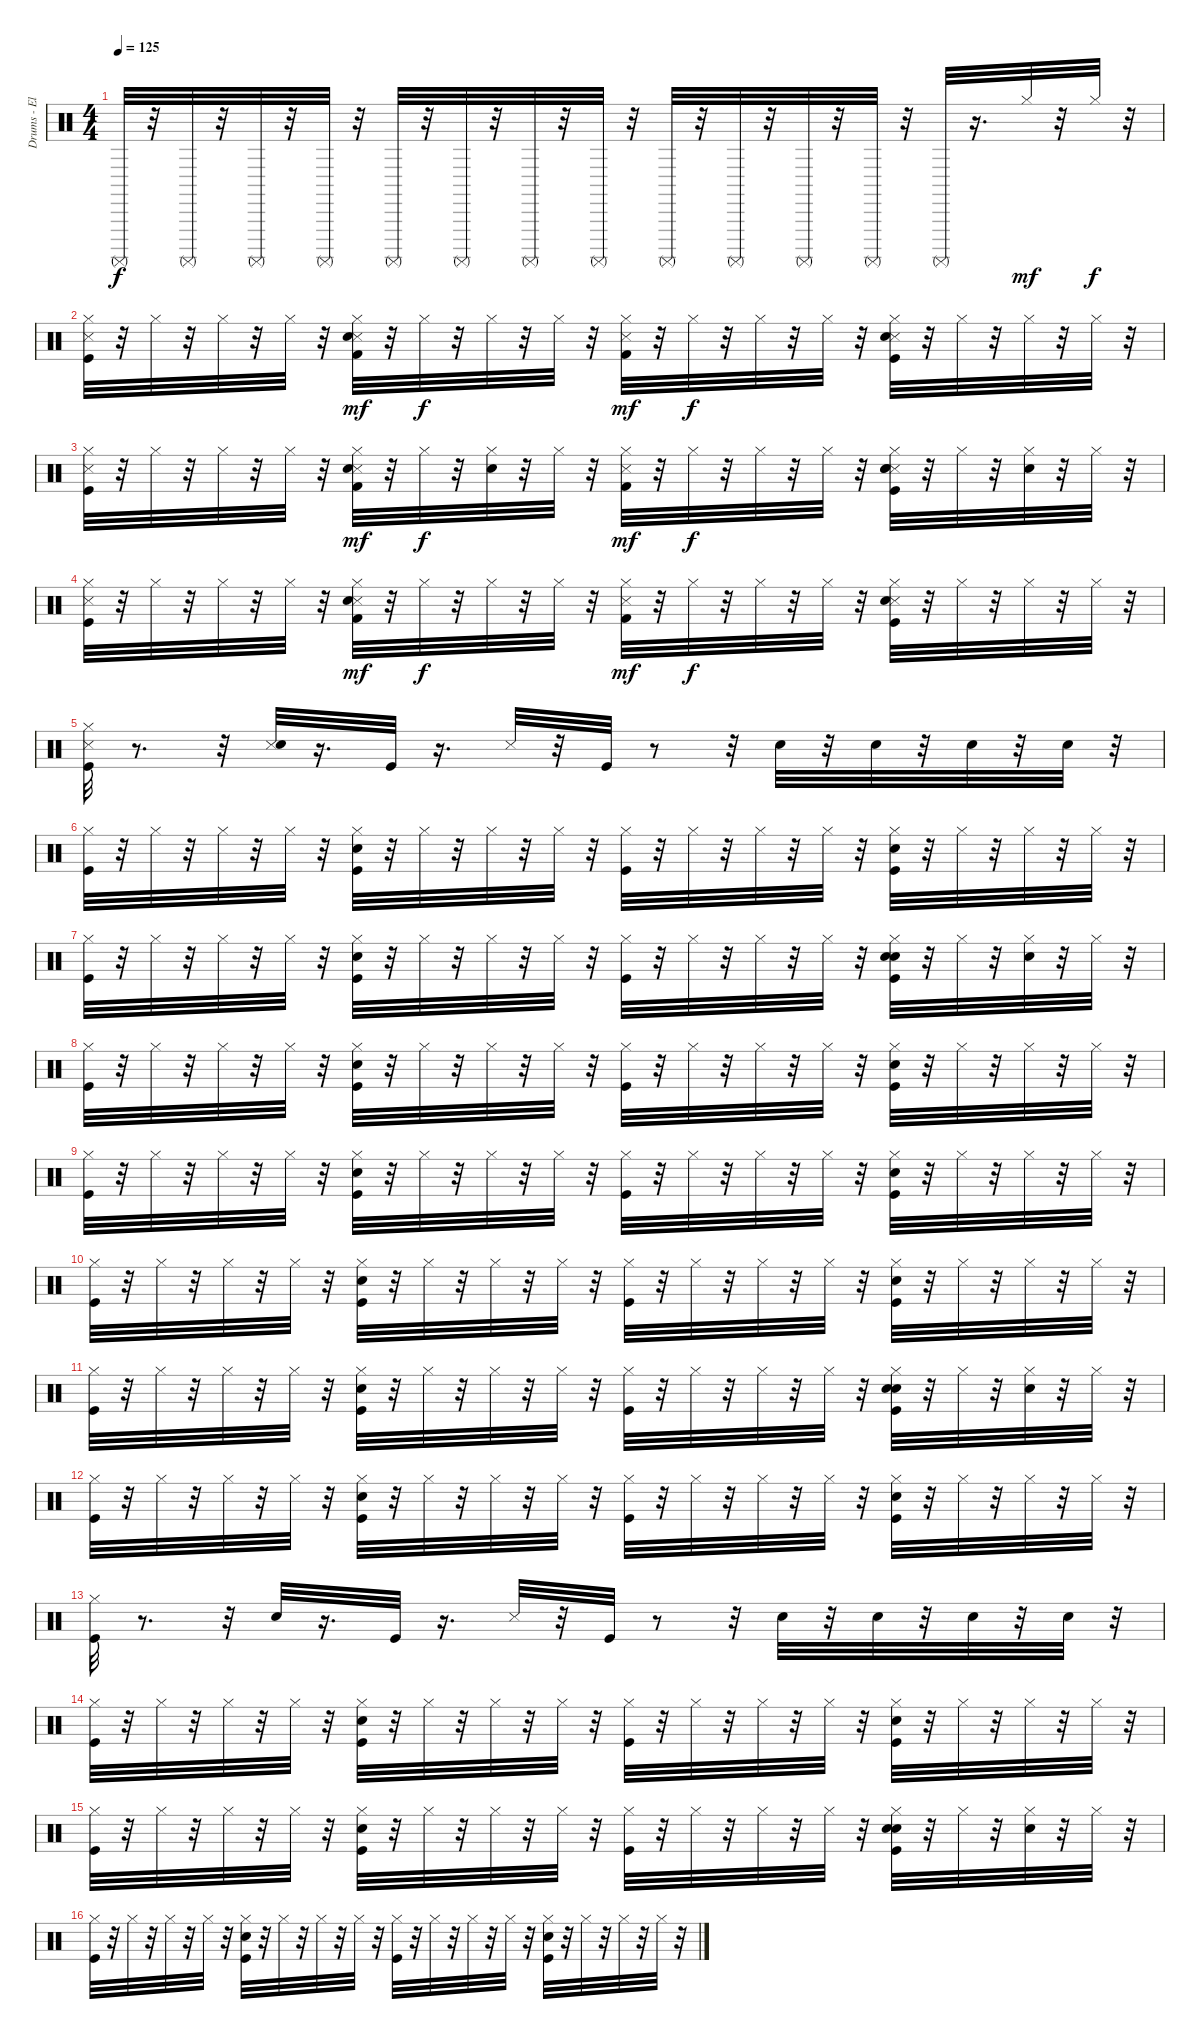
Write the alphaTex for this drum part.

\track ("Drums - El" "Drums - El") {instrument percussion}
\staff {score}
\articulation defaults
\ts (4 4)
\tempo 125
\clef neutral
\ks c "Surdo (mute)".32{dy f}
r.32 "Surdo (mute)".32 r.32 "Surdo (mute)".32 r.32 "Surdo (mute)".32 r.32 "Surdo (mute)".32 r.32 "Surdo (mute)".32 r.32 "Surdo (mute)".32 r.32 "Surdo (mute)".32 r.32 "Surdo (mute)".32 r.32 "Surdo (mute)".32 r.32 "Surdo (mute)".32 r.32 "Surdo (mute)".32 r.32 "Surdo (mute)".32 r.16{d} "Hi-Hat (closed)".32{dy mf} r.32 "Hi-Hat (closed)".32{dy f} r.32 |
("Kick (hit)" "Snare (side stick) 3" "Hi-Hat (closed)").32 r.32 "Hi-Hat (closed)".32 r.32 "Hi-Hat (closed)".32 r.32 "Hi-Hat (closed)".32 r.32 ("Kick (hit) 2" "Snare (side stick) 3" "Electric Snare (hit)" "Hi-Hat (closed)").32{dy mf} r.32 "Hi-Hat (closed)".32{dy f} r.32 "Hi-Hat (closed)".32 r.32 "Hi-Hat (closed)".32 r.32 ("Kick (hit) 2" "Snare (side stick) 3" "Hi-Hat (closed)").32{dy mf} r.32 "Hi-Hat (closed)".32{dy f} r.32 "Hi-Hat (closed)".32 r.32 "Hi-Hat (closed)".32 r.32 ("Kick (hit)" "Snare (side stick) 3" "Electric Snare (hit)" "Hi-Hat (closed)").32 r.32 "Hi-Hat (closed)".32 r.32 "Hi-Hat (closed)".32 r.32 "Hi-Hat (closed)".32 r.32 |
("Kick (hit)" "Snare (side stick) 3" "Hi-Hat (closed)").32 r.32 "Hi-Hat (closed)".32 r.32 "Hi-Hat (closed)".32 r.32 "Hi-Hat (closed)".32 r.32 ("Kick (hit) 2" "Snare (side stick) 3" "Electric Snare (hit)" "Hi-Hat (closed)").32{dy mf} r.32 "Hi-Hat (closed)".32{dy f} r.32 ("Snare (hit) 2" "Hi-Hat (closed)").32 r.32 "Hi-Hat (closed)".32 r.32 ("Kick (hit) 2" "Snare (side stick) 3" "Hi-Hat (closed)").32{dy mf} r.32 "Hi-Hat (closed)".32{dy f} r.32 "Hi-Hat (closed)".32 r.32 "Hi-Hat (closed)".32 r.32 ("Kick (hit)" "Snare (side stick) 3" "Electric Snare (hit)" "Hand Clap (hit)" "Hi-Hat (closed)").32 r.32 "Hi-Hat (closed)".32 r.32 ("Hand Clap (hit)" "Hi-Hat (closed)").32 r.32 "Hi-Hat (closed)".32 r.32 |
("Kick (hit)" "Snare (side stick) 3" "Hi-Hat (closed)").32 r.32 "Hi-Hat (closed)".32 r.32 "Hi-Hat (closed)".32 r.32 "Hi-Hat (closed)".32 r.32 ("Kick (hit) 2" "Snare (side stick) 3" "Electric Snare (hit)" "Hi-Hat (closed)").32{dy mf} r.32 "Hi-Hat (closed)".32{dy f} r.32 "Hi-Hat (closed)".32 r.32 "Hi-Hat (closed)".32 r.32 ("Kick (hit) 2" "Snare (side stick) 3" "Hi-Hat (closed)").32{dy mf} r.32 "Hi-Hat (closed)".32{dy f} r.32 "Hi-Hat (closed)".32 r.32 "Hi-Hat (closed)".32 r.32 ("Kick (hit)" "Snare (side stick) 3" "Electric Snare (hit)" "Hi-Hat (closed)").32 r.32 "Hi-Hat (closed)".32 r.32 "Hi-Hat (closed)".32 r.32 "Hi-Hat (closed)".32 r.32 |
("Kick (hit)" "Snare (side stick) 3" "Hi-Hat (closed)").32 r.8{d} r.32 ("Snare (side stick) 3" "Electric Snare (hit)").32 r.16{d} "Kick (hit)".32 r.16{d} "Snare (side stick) 3".32 r.32 "Kick (hit)".32 r.8 r.32 "Electric Snare (hit)".32 r.32 "Electric Snare (hit)".32 r.32 "Electric Snare (hit)".32 r.32 "Electric Snare (hit)".32 r.32 |
("Kick (hit)" "Hi-Hat (closed)").32 r.32 "Hi-Hat (closed)".32 r.32 "Hi-Hat (closed)".32 r.32 "Hi-Hat (closed)".32 r.32 ("Kick (hit)" "Electric Snare (hit)" "Hi-Hat (closed)").32 r.32 "Hi-Hat (closed)".32 r.32 "Hi-Hat (closed)".32 r.32 "Hi-Hat (closed)".32 r.32 ("Kick (hit)" "Hi-Hat (closed)").32 r.32 "Hi-Hat (closed)".32 r.32 "Hi-Hat (closed)".32 r.32 "Hi-Hat (closed)".32 r.32 ("Kick (hit)" "Electric Snare (hit)" "Hi-Hat (closed)").32 r.32 "Hi-Hat (closed)".32 r.32 "Hi-Hat (closed)".32 r.32 "Hi-Hat (closed)".32 r.32 |
("Kick (hit)" "Hi-Hat (closed)").32 r.32 "Hi-Hat (closed)".32 r.32 "Hi-Hat (closed)".32 r.32 "Hi-Hat (closed)".32 r.32 ("Kick (hit)" "Electric Snare (hit)" "Hi-Hat (closed)").32 r.32 "Hi-Hat (closed)".32 r.32 "Hi-Hat (closed)".32 r.32 "Hi-Hat (closed)".32 r.32 ("Kick (hit)" "Hi-Hat (closed)").32 r.32 "Hi-Hat (closed)".32 r.32 "Hi-Hat (closed)".32 r.32 "Hi-Hat (closed)".32 r.32 ("Kick (hit)" "Electric Snare (hit)" "Hand Clap (hit)" "Hi-Hat (closed)").32 r.32 "Hi-Hat (closed)".32 r.32 ("Hand Clap (hit)" "Hi-Hat (closed)").32 r.32 "Hi-Hat (closed)".32 r.32 |
("Kick (hit)" "Hi-Hat (closed)").32 r.32 "Hi-Hat (closed)".32 r.32 "Hi-Hat (closed)".32 r.32 "Hi-Hat (closed)".32 r.32 ("Kick (hit)" "Electric Snare (hit)" "Hi-Hat (closed)").32 r.32 "Hi-Hat (closed)".32 r.32 "Hi-Hat (closed)".32 r.32 "Hi-Hat (closed)".32 r.32 ("Kick (hit)" "Hi-Hat (closed)").32 r.32 "Hi-Hat (closed)".32 r.32 "Hi-Hat (closed)".32 r.32 "Hi-Hat (closed)".32 r.32 ("Kick (hit)" "Electric Snare (hit)" "Hi-Hat (closed)").32 r.32 "Hi-Hat (closed)".32 r.32 "Hi-Hat (closed)".32 r.32 "Hi-Hat (closed)".32 r.32 |
("Kick (hit)" "Hi-Hat (closed)").32 r.32 "Hi-Hat (closed)".32 r.32 "Hi-Hat (closed)".32 r.32 "Hi-Hat (closed)".32 r.32 ("Kick (hit)" "Electric Snare (hit)" "Hi-Hat (closed)").32 r.32 "Hi-Hat (closed)".32 r.32 "Hi-Hat (closed)".32 r.32 "Hi-Hat (closed)".32 r.32 ("Kick (hit)" "Hi-Hat (closed)").32 r.32 "Hi-Hat (closed)".32 r.32 "Hi-Hat (closed)".32 r.32 "Hi-Hat (closed)".32 r.32 ("Kick (hit)" "Electric Snare (hit)" "Hi-Hat (closed)").32 r.32 "Hi-Hat (closed)".32 r.32 "Hi-Hat (closed)".32 r.32 "Hi-Hat (closed)".32 r.32 |
("Kick (hit)" "Hi-Hat (closed)").32 r.32 "Hi-Hat (closed)".32 r.32 "Hi-Hat (closed)".32 r.32 "Hi-Hat (closed)".32 r.32 ("Kick (hit)" "Electric Snare (hit)" "Hi-Hat (closed)").32 r.32 "Hi-Hat (closed)".32 r.32 "Hi-Hat (closed)".32 r.32 "Hi-Hat (closed)".32 r.32 ("Kick (hit)" "Hi-Hat (closed)").32 r.32 "Hi-Hat (closed)".32 r.32 "Hi-Hat (closed)".32 r.32 "Hi-Hat (closed)".32 r.32 ("Kick (hit)" "Electric Snare (hit)" "Hi-Hat (closed)").32 r.32 "Hi-Hat (closed)".32 r.32 "Hi-Hat (closed)".32 r.32 "Hi-Hat (closed)".32 r.32 |
("Kick (hit)" "Hi-Hat (closed)").32 r.32 "Hi-Hat (closed)".32 r.32 "Hi-Hat (closed)".32 r.32 "Hi-Hat (closed)".32 r.32 ("Kick (hit)" "Electric Snare (hit)" "Hi-Hat (closed)").32 r.32 "Hi-Hat (closed)".32 r.32 "Hi-Hat (closed)".32 r.32 "Hi-Hat (closed)".32 r.32 ("Kick (hit)" "Hi-Hat (closed)").32 r.32 "Hi-Hat (closed)".32 r.32 "Hi-Hat (closed)".32 r.32 "Hi-Hat (closed)".32 r.32 ("Kick (hit)" "Electric Snare (hit)" "Hand Clap (hit)" "Hi-Hat (closed)").32 r.32 "Hi-Hat (closed)".32 r.32 ("Hand Clap (hit)" "Hi-Hat (closed)").32 r.32 "Hi-Hat (closed)".32 r.32 |
("Kick (hit)" "Hi-Hat (closed)").32 r.32 "Hi-Hat (closed)".32 r.32 "Hi-Hat (closed)".32 r.32 "Hi-Hat (closed)".32 r.32 ("Kick (hit)" "Electric Snare (hit)" "Hi-Hat (closed)").32 r.32 "Hi-Hat (closed)".32 r.32 "Hi-Hat (closed)".32 r.32 "Hi-Hat (closed)".32 r.32 ("Kick (hit)" "Hi-Hat (closed)").32 r.32 "Hi-Hat (closed)".32 r.32 "Hi-Hat (closed)".32 r.32 "Hi-Hat (closed)".32 r.32 ("Kick (hit)" "Electric Snare (hit)" "Hi-Hat (closed)").32 r.32 "Hi-Hat (closed)".32 r.32 "Hi-Hat (closed)".32 r.32 "Hi-Hat (closed)".32 r.32 |
("Kick (hit)" "Hi-Hat (closed)").32 r.8{d} r.32 "Electric Snare (hit)".32 r.16{d} "Kick (hit)".32 r.16{d} "Snare (side stick) 3".32 r.32 "Kick (hit)".32 r.8 r.32 "Electric Snare (hit)".32 r.32 "Electric Snare (hit)".32 r.32 "Electric Snare (hit)".32 r.32 "Electric Snare (hit)".32 r.32 |
("Kick (hit)" "Hi-Hat (closed)").32 r.32 "Hi-Hat (closed)".32 r.32 "Hi-Hat (closed)".32 r.32 "Hi-Hat (closed)".32 r.32 ("Kick (hit)" "Electric Snare (hit)" "Hi-Hat (closed)").32 r.32 "Hi-Hat (closed)".32 r.32 "Hi-Hat (closed)".32 r.32 "Hi-Hat (closed)".32 r.32 ("Kick (hit)" "Hi-Hat (closed)").32 r.32 "Hi-Hat (closed)".32 r.32 "Hi-Hat (closed)".32 r.32 "Hi-Hat (closed)".32 r.32 ("Kick (hit)" "Electric Snare (hit)" "Hi-Hat (closed)").32 r.32 "Hi-Hat (closed)".32 r.32 "Hi-Hat (closed)".32 r.32 "Hi-Hat (closed)".32 r.32 |
("Kick (hit)" "Hi-Hat (closed)").32 r.32 "Hi-Hat (closed)".32 r.32 "Hi-Hat (closed)".32 r.32 "Hi-Hat (closed)".32 r.32 ("Kick (hit)" "Electric Snare (hit)" "Hi-Hat (closed)").32 r.32 "Hi-Hat (closed)".32 r.32 "Hi-Hat (closed)".32 r.32 "Hi-Hat (closed)".32 r.32 ("Kick (hit)" "Hi-Hat (closed)").32 r.32 "Hi-Hat (closed)".32 r.32 "Hi-Hat (closed)".32 r.32 "Hi-Hat (closed)".32 r.32 ("Kick (hit)" "Electric Snare (hit)" "Hand Clap (hit)" "Hi-Hat (closed)").32 r.32 "Hi-Hat (closed)".32 r.32 ("Hand Clap (hit)" "Hi-Hat (closed)").32 r.32 "Hi-Hat (closed)".32 r.32 |
("Kick (hit)" "Hi-Hat (closed)").32 r.32 "Hi-Hat (closed)".32 r.32 "Hi-Hat (closed)".32 r.32 "Hi-Hat (closed)".32 r.32 ("Kick (hit)" "Electric Snare (hit)" "Hi-Hat (closed)").32 r.32 "Hi-Hat (closed)".32 r.32 "Hi-Hat (closed)".32 r.32 "Hi-Hat (closed)".32 r.32 ("Kick (hit)" "Hi-Hat (closed)").32 r.32 "Hi-Hat (closed)".32 r.32 "Hi-Hat (closed)".32 r.32 "Hi-Hat (closed)".32 r.32 ("Kick (hit)" "Electric Snare (hit)" "Hi-Hat (closed)").32 r.32 "Hi-Hat (closed)".32 r.32 "Hi-Hat (closed)".32 r.32 "Hi-Hat (closed)".32 r.32
